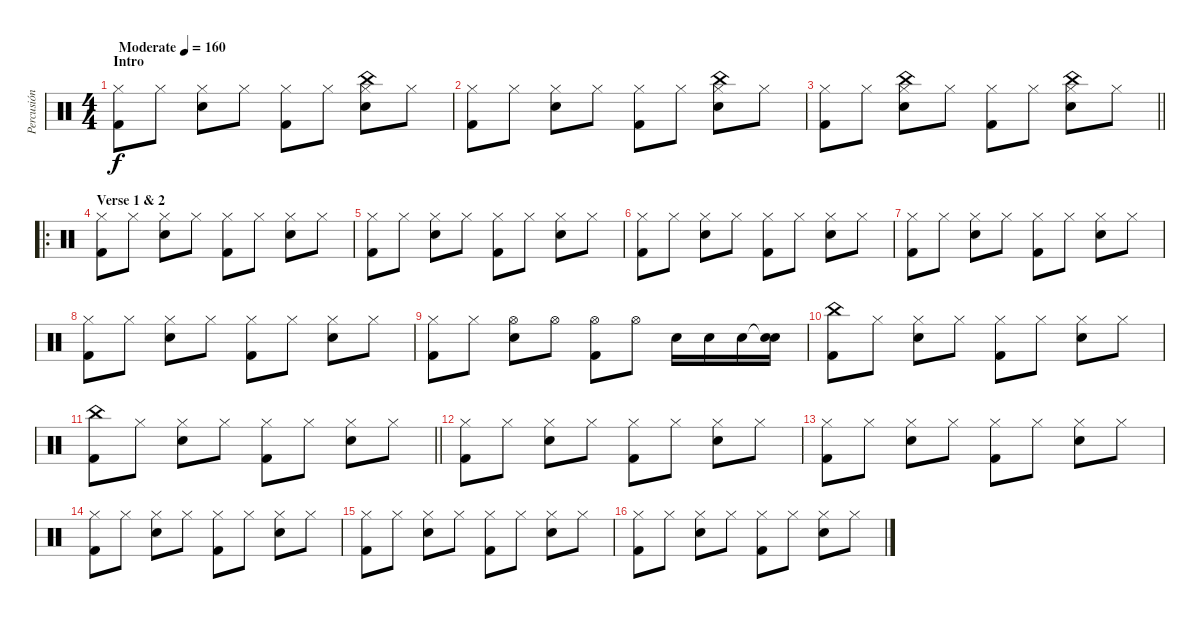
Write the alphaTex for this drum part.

\track ("Percusión" "Percusión") {instrument percussion}
\staff {score}
\articulation defaults
\ts (4 4)
\section ("" "Intro")
\tempo (160 "Moderate")
\clef neutral
\ks c
("Hi-Hat (closed)" "Kick (hit) 2").8{dy f} "Hi-Hat (closed)".8 ("Hi-Hat (closed)" "Electric Snare (hit)").8 "Hi-Hat (closed)".8 ("Hi-Hat (closed)" "Kick (hit) 2").8 "Hi-Hat (closed)".8 ("Hi-Hat (closed)" "Electric Snare (hit)" "China (hit)").8 "Hi-Hat (closed)".8 |
("Hi-Hat (closed)" "Kick (hit) 2").8 "Hi-Hat (closed)".8 ("Hi-Hat (closed)" "Electric Snare (hit)").8 "Hi-Hat (closed)".8 ("Hi-Hat (closed)" "Kick (hit) 2").8 "Hi-Hat (closed)".8 ("Hi-Hat (closed)" "Electric Snare (hit)" "China (hit)").8 "Hi-Hat (closed)".8 |
\barLineRight lightlight
("Hi-Hat (closed)" "Kick (hit) 2").8 "Hi-Hat (closed)".8 ("Hi-Hat (closed)" "Electric Snare (hit)" "China (hit)").8 "Hi-Hat (closed)".8 ("Hi-Hat (closed)" "Kick (hit) 2").8 "Hi-Hat (closed)".8 ("Hi-Hat (closed)" "Electric Snare (hit)" "China (hit)").8 "Hi-Hat (closed)".8 |
\ro
\section ("" "Verse 1 & 2")
("Hi-Hat (closed)" "Kick (hit) 2").8 "Hi-Hat (closed)".8 ("Hi-Hat (closed)" "Electric Snare (hit)").8 "Hi-Hat (closed)".8 ("Hi-Hat (closed)" "Kick (hit) 2").8 "Hi-Hat (closed)".8 ("Hi-Hat (closed)" "Electric Snare (hit)").8 "Hi-Hat (closed)".8 |
("Hi-Hat (closed)" "Kick (hit) 2").8 "Hi-Hat (closed)".8 ("Hi-Hat (closed)" "Electric Snare (hit)").8 "Hi-Hat (closed)".8 ("Hi-Hat (closed)" "Kick (hit) 2").8 "Hi-Hat (closed)".8 ("Hi-Hat (closed)" "Electric Snare (hit)").8 "Hi-Hat (closed)".8 |
("Hi-Hat (closed)" "Kick (hit) 2").8 "Hi-Hat (closed)".8 ("Hi-Hat (closed)" "Electric Snare (hit)").8 "Hi-Hat (closed)".8 ("Hi-Hat (closed)" "Kick (hit) 2").8 "Hi-Hat (closed)".8 ("Hi-Hat (closed)" "Electric Snare (hit)").8 "Hi-Hat (closed)".8 |
("Hi-Hat (closed)" "Kick (hit) 2").8 "Hi-Hat (closed)".8 ("Hi-Hat (closed)" "Electric Snare (hit)").8 "Hi-Hat (closed)".8 ("Hi-Hat (closed)" "Kick (hit) 2").8 "Hi-Hat (closed)".8 ("Hi-Hat (closed)" "Electric Snare (hit)").8 "Hi-Hat (closed)".8 |
("Hi-Hat (closed)" "Kick (hit) 2").8 "Hi-Hat (closed)".8 ("Hi-Hat (closed)" "Electric Snare (hit)").8 "Hi-Hat (closed)".8 ("Hi-Hat (closed)" "Kick (hit) 2").8 "Hi-Hat (closed)".8 ("Hi-Hat (closed)" "Electric Snare (hit)").8 "Hi-Hat (closed)".8 |
("Hi-Hat (closed)" "Kick (hit) 2").8 "Hi-Hat (closed)".8 ("Hi-Hat (open)" "Electric Snare (hit)").8 "Hi-Hat (open)".8 ("Hi-Hat (open)" "Kick (hit) 2").8 "Hi-Hat (open)".8 "Electric Snare (hit)".16 "Electric Snare (hit)".16 "Electric Snare (hit)".16 ("Snare (hit)"{t} "Electric Snare (hit)").16 |
("China (hit)" "Kick (hit) 2").8 "Hi-Hat (closed)".8 ("Hi-Hat (closed)" "Electric Snare (hit)").8 "Hi-Hat (closed)".8 ("Hi-Hat (closed)" "Kick (hit) 2").8 "Hi-Hat (closed)".8 ("Hi-Hat (closed)" "Electric Snare (hit)").8 "Hi-Hat (closed)".8 |
\barLineRight lightlight
("China (hit)" "Kick (hit) 2").8 "Hi-Hat (closed)".8 ("Hi-Hat (closed)" "Electric Snare (hit)").8 "Hi-Hat (closed)".8 ("Hi-Hat (closed)" "Kick (hit) 2").8 "Hi-Hat (closed)".8 ("Hi-Hat (closed)" "Electric Snare (hit)").8 "Hi-Hat (closed)".8 |
("Hi-Hat (closed)" "Kick (hit) 2").8 "Hi-Hat (closed)".8 ("Hi-Hat (closed)" "Electric Snare (hit)").8 "Hi-Hat (closed)".8 ("Hi-Hat (closed)" "Kick (hit) 2").8 "Hi-Hat (closed)".8 ("Hi-Hat (closed)" "Electric Snare (hit)").8 "Hi-Hat (closed)".8 |
("Hi-Hat (closed)" "Kick (hit) 2").8 "Hi-Hat (closed)".8 ("Hi-Hat (closed)" "Electric Snare (hit)").8 "Hi-Hat (closed)".8 ("Hi-Hat (closed)" "Kick (hit) 2").8 "Hi-Hat (closed)".8 ("Hi-Hat (closed)" "Electric Snare (hit)").8 "Hi-Hat (closed)".8 |
("Hi-Hat (closed)" "Kick (hit) 2").8 "Hi-Hat (closed)".8 ("Hi-Hat (closed)" "Electric Snare (hit)").8 "Hi-Hat (closed)".8 ("Hi-Hat (closed)" "Kick (hit) 2").8 "Hi-Hat (closed)".8 ("Hi-Hat (closed)" "Electric Snare (hit)").8 "Hi-Hat (closed)".8 |
("Hi-Hat (closed)" "Kick (hit) 2").8 "Hi-Hat (closed)".8 ("Hi-Hat (closed)" "Electric Snare (hit)").8 "Hi-Hat (closed)".8 ("Hi-Hat (closed)" "Kick (hit) 2").8 "Hi-Hat (closed)".8 ("Hi-Hat (closed)" "Electric Snare (hit)").8 "Hi-Hat (closed)".8 |
("Hi-Hat (closed)" "Kick (hit) 2").8 "Hi-Hat (closed)".8 ("Hi-Hat (closed)" "Electric Snare (hit)").8 "Hi-Hat (closed)".8 ("Hi-Hat (closed)" "Kick (hit) 2").8 "Hi-Hat (closed)".8 ("Hi-Hat (closed)" "Electric Snare (hit)").8 "Hi-Hat (closed)".8
